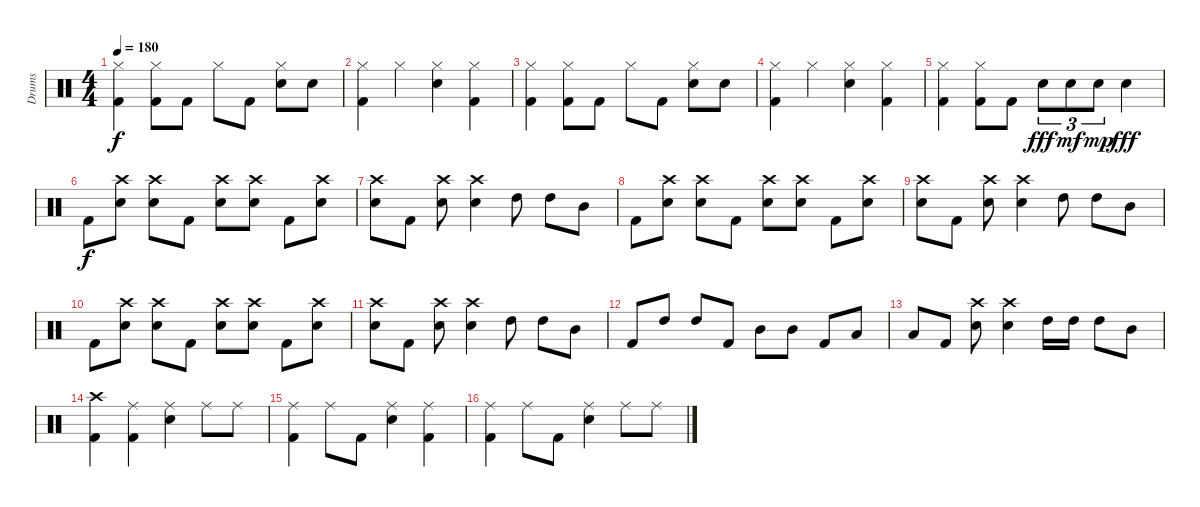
\track ("Drums" "Drums") {instrument percussion}
\staff {score}
\articulation defaults
\ts (4 4)
\tempo 180
\clef neutral
\ks c
("Hi-Hat (closed)" "Kick (hit) 2").4{dy f} ("Hi-Hat (closed)" "Kick (hit) 2").8 "Kick (hit) 2".8 "Hi-Hat (closed)".8 "Kick (hit) 2".8 ("Hi-Hat (closed)" "Snare (hit) 2").8 "Snare (hit) 2".8 |
("Hi-Hat (closed)" "Kick (hit) 2").4 "Hi-Hat (closed)".4 ("Hi-Hat (closed)" "Snare (hit) 2").4 ("Hi-Hat (closed)" "Kick (hit) 2").4 |
("Hi-Hat (closed)" "Kick (hit) 2").4 ("Hi-Hat (closed)" "Kick (hit) 2").8 "Kick (hit) 2".8 "Hi-Hat (closed)".8 "Kick (hit) 2".8 ("Hi-Hat (closed)" "Snare (hit) 2").8 "Snare (hit) 2".8 |
("Hi-Hat (closed)" "Kick (hit) 2").4 "Hi-Hat (closed)".4 ("Hi-Hat (closed)" "Snare (hit) 2").4 ("Hi-Hat (closed)" "Kick (hit) 2").4 |
("Hi-Hat (closed)" "Kick (hit) 2").4 ("Hi-Hat (closed)" "Kick (hit) 2").8 "Kick (hit) 2".8 "Snare (hit) 2".8{tu (3 2) dy fff} "Snare (hit) 2".8{tu (3 2) dy mf} "Snare (hit) 2".8{tu (3 2) dy mp} "Snare (hit) 2".4{dy fff} |
"Kick (hit) 2".8{dy f} ("Crash high (hit)" "Snare (hit) 2").8 ("Crash high (hit)" "Snare (hit) 2").8 "Kick (hit) 2".8 ("Crash high (hit)" "Snare (hit) 2").8 ("Crash high (hit)" "Snare (hit) 2").8 "Kick (hit) 2".8 ("Crash high (hit)" "Snare (hit) 2").8 |
("Crash high (hit)" "Snare (hit) 2").8 "Kick (hit) 2".8 ("Crash high (hit)" "Snare (hit) 2").8 ("Crash high (hit)" "Snare (hit) 2").4 "High Tom (hit)".8 "High Tom (hit)".8 "Mid Tom (hit)".8 |
"Kick (hit) 2".8 ("Crash high (hit)" "Snare (hit) 2").8 ("Crash high (hit)" "Snare (hit) 2").8 "Kick (hit) 2".8 ("Crash high (hit)" "Snare (hit) 2").8 ("Crash high (hit)" "Snare (hit) 2").8 "Kick (hit) 2".8 ("Crash high (hit)" "Snare (hit) 2").8 |
("Crash high (hit)" "Snare (hit) 2").8 "Kick (hit) 2".8 ("Crash high (hit)" "Snare (hit) 2").8 ("Crash high (hit)" "Snare (hit) 2").4 "High Tom (hit)".8 "High Tom (hit)".8 "Mid Tom (hit)".8 |
"Kick (hit) 2".8 ("Crash high (hit)" "Snare (hit) 2").8 ("Crash high (hit)" "Snare (hit) 2").8 "Kick (hit) 2".8 ("Crash high (hit)" "Snare (hit) 2").8 ("Crash high (hit)" "Snare (hit) 2").8 "Kick (hit) 2".8 ("Crash high (hit)" "Snare (hit) 2").8 |
("Crash high (hit)" "Snare (hit) 2").8 "Kick (hit) 2".8 ("Crash high (hit)" "Snare (hit) 2").8 ("Crash high (hit)" "Snare (hit) 2").4 "High Tom (hit)".8 "High Tom (hit)".8 "Mid Tom (hit)".8 |
"Kick (hit) 2".8 "High Tom (hit)".8 "High Tom (hit)".8 "Kick (hit) 2".8 "Mid Tom (hit)".8 "Mid Tom (hit)".8 "Kick (hit) 2".8 "Low Tom (hit)".8 |
"Low Tom (hit)".8 "Kick (hit) 2".8 ("Crash high (hit)" "Snare (hit) 2").8 ("Crash high (hit)" "Snare (hit) 2").4 "High Tom (hit)".16 "High Tom (hit)".16 "High Tom (hit)".8 "Mid Tom (hit)".8 |
("Crash high (hit)" "Kick (hit) 2").4 ("Ride (middle)" "Kick (hit) 2").4 ("Ride (middle)" "Snare (hit) 2").4 "Ride (middle)".8 "Ride (middle)".8 |
("Ride (middle)" "Kick (hit) 2").4 "Ride (middle)".8 "Kick (hit) 2".8 ("Ride (middle)" "Snare (hit) 2").4 ("Ride (middle)" "Kick (hit) 2").4 |
("Ride (middle)" "Kick (hit) 2").4 "Ride (middle)".8 "Kick (hit) 2".8 ("Ride (middle)" "Snare (hit) 2").4 "Ride (middle)".8 "Ride (middle)".8
